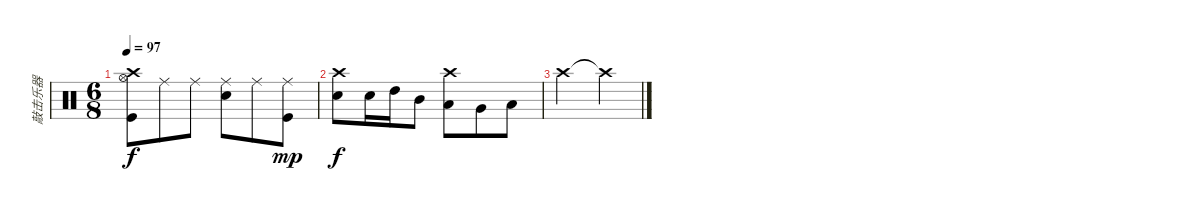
\track ("敲击乐器" "敲击乐器") {instrument percussion}
\staff {score}
\articulation defaults
\ts (6 8)
\tempo 97
\clef neutral
\ks c
("Crash high (hit)" "Hi-Hat (open)" "Kick (hit)").8{dy f} "Ride (middle)".8 "Ride (middle)".8 ("Ride (middle)" "Electric Snare (hit)").8 "Ride (middle)".8 ("Ride (middle)" "Kick (hit)").8{dy mp} |
("Crash high (hit)" "Electric Snare (hit)").8{dy f} "Electric Snare (hit)".16 "High Tom (hit)".16 "Mid Tom (hit)".8 ("Crash high (hit)" "Low Tom (hit)").8 "Very Low Tom (hit)".8 "Low Floor Tom (hit)".8 |
"Crash high (hit)".2 "Crash high (hit)"{t}.4
